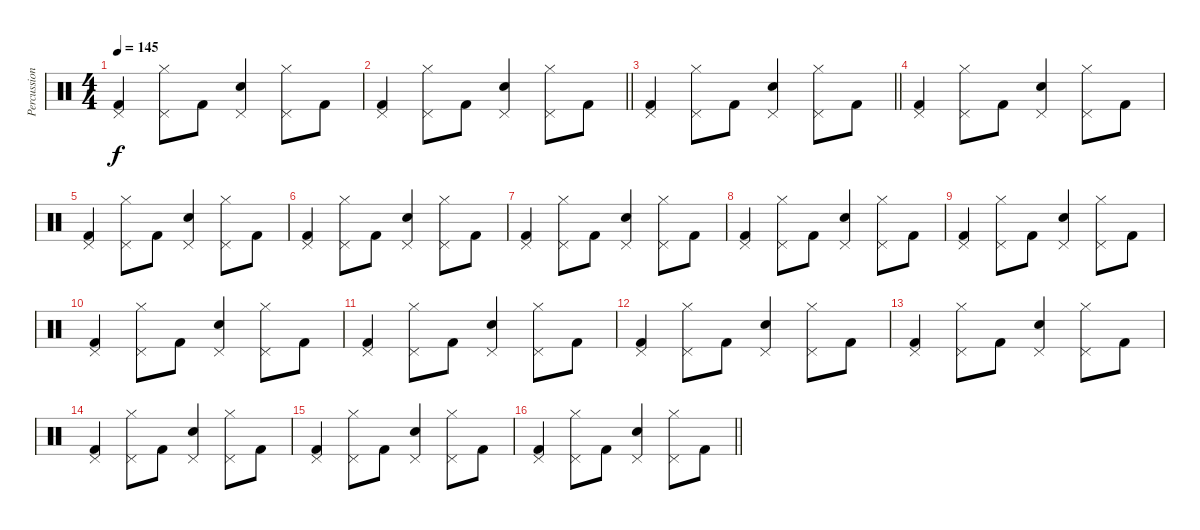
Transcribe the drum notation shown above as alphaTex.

\track ("Percussion" "Percussion") {instrument percussion}
\staff {score}
\articulation defaults
\ts (4 4)
\tempo 145
\clef neutral
\ks c
("Kick (hit) 2" "Pedal Hi-Hat (hit)").4{dy f} ("Hi-Hat (closed)" "Pedal Hi-Hat (hit)").8 "Kick (hit) 2".8 ("Snare (hit) 2" "Pedal Hi-Hat (hit)").4 ("Hi-Hat (closed)" "Pedal Hi-Hat (hit)").8 "Kick (hit) 2".8 |
\barLineRight lightlight
("Kick (hit) 2" "Pedal Hi-Hat (hit)").4 ("Hi-Hat (closed)" "Pedal Hi-Hat (hit)").8 "Kick (hit) 2".8 ("Snare (hit) 2" "Pedal Hi-Hat (hit)").4 ("Hi-Hat (closed)" "Pedal Hi-Hat (hit)").8 "Kick (hit) 2".8 |
\barLineRight lightlight
("Kick (hit) 2" "Pedal Hi-Hat (hit)").4 ("Hi-Hat (closed)" "Pedal Hi-Hat (hit)").8 "Kick (hit) 2".8 ("Snare (hit) 2" "Pedal Hi-Hat (hit)").4 ("Hi-Hat (closed)" "Pedal Hi-Hat (hit)").8 "Kick (hit) 2".8 |
("Kick (hit) 2" "Pedal Hi-Hat (hit)").4 ("Hi-Hat (closed)" "Pedal Hi-Hat (hit)").8 "Kick (hit) 2".8 ("Snare (hit) 2" "Pedal Hi-Hat (hit)").4 ("Hi-Hat (closed)" "Pedal Hi-Hat (hit)").8 "Kick (hit) 2".8 |
("Kick (hit) 2" "Pedal Hi-Hat (hit)").4 ("Hi-Hat (closed)" "Pedal Hi-Hat (hit)").8 "Kick (hit) 2".8 ("Snare (hit) 2" "Pedal Hi-Hat (hit)").4 ("Hi-Hat (closed)" "Pedal Hi-Hat (hit)").8 "Kick (hit) 2".8 |
("Kick (hit) 2" "Pedal Hi-Hat (hit)").4 ("Hi-Hat (closed)" "Pedal Hi-Hat (hit)").8 "Kick (hit) 2".8 ("Snare (hit) 2" "Pedal Hi-Hat (hit)").4 ("Hi-Hat (closed)" "Pedal Hi-Hat (hit)").8 "Kick (hit) 2".8 |
("Kick (hit) 2" "Pedal Hi-Hat (hit)").4 ("Hi-Hat (closed)" "Pedal Hi-Hat (hit)").8 "Kick (hit) 2".8 ("Snare (hit) 2" "Pedal Hi-Hat (hit)").4 ("Hi-Hat (closed)" "Pedal Hi-Hat (hit)").8 "Kick (hit) 2".8 |
("Kick (hit) 2" "Pedal Hi-Hat (hit)").4 ("Hi-Hat (closed)" "Pedal Hi-Hat (hit)").8 "Kick (hit) 2".8 ("Snare (hit) 2" "Pedal Hi-Hat (hit)").4 ("Hi-Hat (closed)" "Pedal Hi-Hat (hit)").8 "Kick (hit) 2".8 |
("Kick (hit) 2" "Pedal Hi-Hat (hit)").4 ("Hi-Hat (closed)" "Pedal Hi-Hat (hit)").8 "Kick (hit) 2".8 ("Snare (hit) 2" "Pedal Hi-Hat (hit)").4 ("Hi-Hat (closed)" "Pedal Hi-Hat (hit)").8 "Kick (hit) 2".8 |
("Kick (hit) 2" "Pedal Hi-Hat (hit)").4 ("Hi-Hat (closed)" "Pedal Hi-Hat (hit)").8 "Kick (hit) 2".8 ("Snare (hit) 2" "Pedal Hi-Hat (hit)").4 ("Hi-Hat (closed)" "Pedal Hi-Hat (hit)").8 "Kick (hit) 2".8 |
("Kick (hit) 2" "Pedal Hi-Hat (hit)").4 ("Hi-Hat (closed)" "Pedal Hi-Hat (hit)").8 "Kick (hit) 2".8 ("Snare (hit) 2" "Pedal Hi-Hat (hit)").4 ("Hi-Hat (closed)" "Pedal Hi-Hat (hit)").8 "Kick (hit) 2".8 |
("Kick (hit) 2" "Pedal Hi-Hat (hit)").4 ("Hi-Hat (closed)" "Pedal Hi-Hat (hit)").8 "Kick (hit) 2".8 ("Snare (hit) 2" "Pedal Hi-Hat (hit)").4 ("Hi-Hat (closed)" "Pedal Hi-Hat (hit)").8 "Kick (hit) 2".8 |
("Kick (hit) 2" "Pedal Hi-Hat (hit)").4 ("Hi-Hat (closed)" "Pedal Hi-Hat (hit)").8 "Kick (hit) 2".8 ("Snare (hit) 2" "Pedal Hi-Hat (hit)").4 ("Hi-Hat (closed)" "Pedal Hi-Hat (hit)").8 "Kick (hit) 2".8 |
("Kick (hit) 2" "Pedal Hi-Hat (hit)").4 ("Hi-Hat (closed)" "Pedal Hi-Hat (hit)").8 "Kick (hit) 2".8 ("Snare (hit) 2" "Pedal Hi-Hat (hit)").4 ("Hi-Hat (closed)" "Pedal Hi-Hat (hit)").8 "Kick (hit) 2".8 |
("Kick (hit) 2" "Pedal Hi-Hat (hit)").4 ("Hi-Hat (closed)" "Pedal Hi-Hat (hit)").8 "Kick (hit) 2".8 ("Snare (hit) 2" "Pedal Hi-Hat (hit)").4 ("Hi-Hat (closed)" "Pedal Hi-Hat (hit)").8 "Kick (hit) 2".8 |
\barLineRight lightlight
("Kick (hit) 2" "Pedal Hi-Hat (hit)").4 ("Hi-Hat (closed)" "Pedal Hi-Hat (hit)").8 "Kick (hit) 2".8 ("Snare (hit) 2" "Pedal Hi-Hat (hit)").4 ("Hi-Hat (closed)" "Pedal Hi-Hat (hit)").8 "Kick (hit) 2".8
